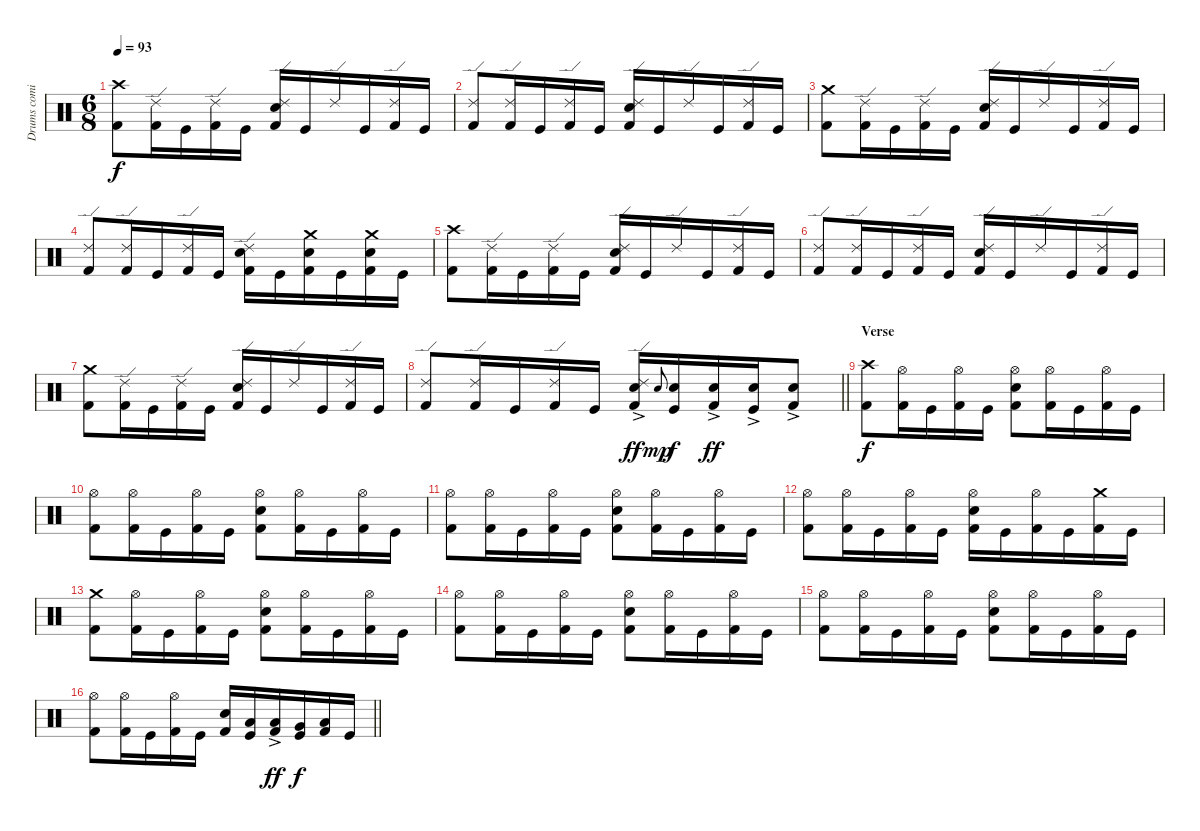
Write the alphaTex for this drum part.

\track ("Drums coming soon" "Drums comi") {instrument percussion}
\staff {score}
\articulation defaults
\ts (6 8)
\section ("" "")
\tempo 93
\clef neutral
\ks c
("Crash high (hit)" "Kick (hit) 2").8{dy f} ("Ride (edge) 2" "Kick (hit) 2").16 "Kick (hit)".16 ("Ride (edge) 2" "Kick (hit) 2").16 "Kick (hit)".16 ("Ride (edge) 2" "Snare (hit) 2" "Kick (hit) 2").16 "Kick (hit)".16 "Ride (edge) 2".16 "Kick (hit)".16 ("Ride (edge) 2" "Kick (hit) 2").16 "Kick (hit)".16 |
("Ride (edge) 2" "Kick (hit) 2").8 ("Ride (edge) 2" "Kick (hit) 2").16 "Kick (hit)".16 ("Ride (edge) 2" "Kick (hit) 2").16 "Kick (hit)".16 ("Ride (edge) 2" "Snare (hit) 2" "Kick (hit) 2").16 "Kick (hit)".16 "Ride (edge) 2".16 "Kick (hit)".16 ("Ride (edge) 2" "Kick (hit) 2").16 "Kick (hit)".16 |
("Crash medium (hit)" "Kick (hit) 2").8 ("Ride (edge) 2" "Kick (hit) 2").16 "Kick (hit)".16 ("Ride (edge) 2" "Kick (hit) 2").16 "Kick (hit)".16 ("Ride (edge) 2" "Snare (hit) 2" "Kick (hit) 2").16 "Kick (hit)".16 "Ride (edge) 2".16 "Kick (hit)".16 ("Ride (edge) 2" "Kick (hit) 2").16 "Kick (hit)".16 |
("Ride (edge) 2" "Kick (hit) 2").8 ("Ride (edge) 2" "Kick (hit) 2").16 "Kick (hit)".16 ("Ride (edge) 2" "Kick (hit) 2").16 "Kick (hit)".16 ("Ride (edge) 2" "Snare (hit) 2" "Kick (hit) 2").16 "Kick (hit)".16 ("Crash medium (hit)" "Snare (hit) 2" "Kick (hit) 2").16 "Kick (hit)".16 ("Crash medium (hit)" "Snare (hit) 2" "Kick (hit) 2").16 "Kick (hit)".16 |
("Crash high (hit)" "Kick (hit) 2").8 ("Ride (edge) 2" "Kick (hit) 2").16 "Kick (hit)".16 ("Ride (edge) 2" "Kick (hit) 2").16 "Kick (hit)".16 ("Ride (edge) 2" "Snare (hit) 2" "Kick (hit) 2").16 "Kick (hit)".16 "Ride (edge) 2".16 "Kick (hit)".16 ("Ride (edge) 2" "Kick (hit) 2").16 "Kick (hit)".16 |
("Ride (edge) 2" "Kick (hit) 2").8 ("Ride (edge) 2" "Kick (hit) 2").16 "Kick (hit)".16 ("Ride (edge) 2" "Kick (hit) 2").16 "Kick (hit)".16 ("Ride (edge) 2" "Snare (hit) 2" "Kick (hit) 2").16 "Kick (hit)".16 "Ride (edge) 2".16 "Kick (hit)".16 ("Ride (edge) 2" "Kick (hit) 2").16 "Kick (hit)".16 |
("Crash medium (hit)" "Kick (hit) 2").8 ("Ride (edge) 2" "Kick (hit) 2").16 "Kick (hit)".16 ("Ride (edge) 2" "Kick (hit) 2").16 "Kick (hit)".16 ("Ride (edge) 2" "Snare (hit) 2" "Kick (hit) 2").16 "Kick (hit)".16 "Ride (edge) 2".16 "Kick (hit)".16 ("Ride (edge) 2" "Kick (hit) 2").16 "Kick (hit)".16 |
\barLineRight lightlight
("Ride (edge) 2" "Kick (hit) 2").8 ("Ride (edge) 2" "Kick (hit) 2").16 "Kick (hit)".16 ("Ride (edge) 2" "Kick (hit) 2").16 "Kick (hit)".16 ("Ride (edge) 2" "Snare (hit) 2"{ac} "Kick (hit) 2").16{dy ff} "Snare (hit) 2".8{gr onbeat dy mp} ("Snare (hit) 2" "Kick (hit)").16{dy f} ("Snare (hit) 2"{ac} "Kick (hit) 2").16{dy ff} ("Snare (hit) 2"{ac} "Kick (hit)").16 ("Snare (hit) 2"{ac} "Kick (hit) 2").8 |
\section ("" "Verse")
("Crash high (hit)" "Kick (hit) 2").8{dy f} ("Hi-Hat (open)" "Kick (hit) 2").16 "Kick (hit)".16 ("Hi-Hat (open)" "Kick (hit) 2").16 "Kick (hit)".16 ("Hi-Hat (open)" "Snare (hit) 2" "Kick (hit) 2").8 ("Hi-Hat (open)" "Kick (hit) 2").16 "Kick (hit)".16 ("Hi-Hat (open)" "Kick (hit) 2").16 "Kick (hit)".16 |
("Hi-Hat (open)" "Kick (hit) 2").8 ("Hi-Hat (open)" "Kick (hit) 2").16 "Kick (hit)".16 ("Hi-Hat (open)" "Kick (hit) 2").16 "Kick (hit)".16 ("Hi-Hat (open)" "Snare (hit) 2" "Kick (hit) 2").8 ("Hi-Hat (open)" "Kick (hit) 2").16 "Kick (hit)".16 ("Hi-Hat (open)" "Kick (hit) 2").16 "Kick (hit)".16 |
("Hi-Hat (open)" "Kick (hit) 2").8 ("Hi-Hat (open)" "Kick (hit) 2").16 "Kick (hit)".16 ("Hi-Hat (open)" "Kick (hit) 2").16 "Kick (hit)".16 ("Hi-Hat (open)" "Snare (hit) 2" "Kick (hit) 2").8 ("Hi-Hat (open)" "Kick (hit) 2").16 "Kick (hit)".16 ("Hi-Hat (open)" "Kick (hit) 2").16 "Kick (hit)".16 |
("Hi-Hat (open)" "Kick (hit) 2").8 ("Hi-Hat (open)" "Kick (hit) 2").16 "Kick (hit)".16 ("Hi-Hat (open)" "Kick (hit) 2").16 "Kick (hit)".16 ("Hi-Hat (open)" "Snare (hit) 2" "Kick (hit) 2").16 "Kick (hit)".16 ("Hi-Hat (open)" "Kick (hit) 2").16 "Kick (hit)".16 ("Crash medium (hit)" "Kick (hit) 2").16 "Kick (hit)".16 |
("Crash medium (hit)" "Kick (hit) 2").8 ("Hi-Hat (open)" "Kick (hit) 2").16 "Kick (hit)".16 ("Hi-Hat (open)" "Kick (hit) 2").16 "Kick (hit)".16 ("Hi-Hat (open)" "Snare (hit) 2" "Kick (hit) 2").8 ("Hi-Hat (open)" "Kick (hit) 2").16 "Kick (hit)".16 ("Hi-Hat (open)" "Kick (hit) 2").16 "Kick (hit)".16 |
("Hi-Hat (open)" "Kick (hit) 2").8 ("Hi-Hat (open)" "Kick (hit) 2").16 "Kick (hit)".16 ("Hi-Hat (open)" "Kick (hit) 2").16 "Kick (hit)".16 ("Hi-Hat (open)" "Snare (hit) 2" "Kick (hit) 2").8 ("Hi-Hat (open)" "Kick (hit) 2").16 "Kick (hit)".16 ("Hi-Hat (open)" "Kick (hit) 2").16 "Kick (hit)".16 |
("Hi-Hat (open)" "Kick (hit) 2").8 ("Hi-Hat (open)" "Kick (hit) 2").16 "Kick (hit)".16 ("Hi-Hat (open)" "Kick (hit) 2").16 "Kick (hit)".16 ("Hi-Hat (open)" "Snare (hit) 2" "Kick (hit) 2").8 ("Hi-Hat (open)" "Kick (hit) 2").16 "Kick (hit)".16 ("Hi-Hat (open)" "Kick (hit) 2").16 "Kick (hit)".16 |
\barLineRight lightlight
("Hi-Hat (open)" "Kick (hit) 2").8 ("Hi-Hat (open)" "Kick (hit) 2").16 "Kick (hit)".16 ("Hi-Hat (open)" "Kick (hit) 2").16 "Kick (hit)".16 ("Snare (hit) 2" "Kick (hit) 2").16 ("Low Tom (hit)" "Kick (hit)").16 ("Low Tom (hit)"{ac} "Kick (hit) 2").16{dy ff} ("Very Low Tom (hit)" "Kick (hit)").16{dy f} ("Low Floor Tom (hit)" "Kick (hit) 2").16 "Kick (hit)".16
